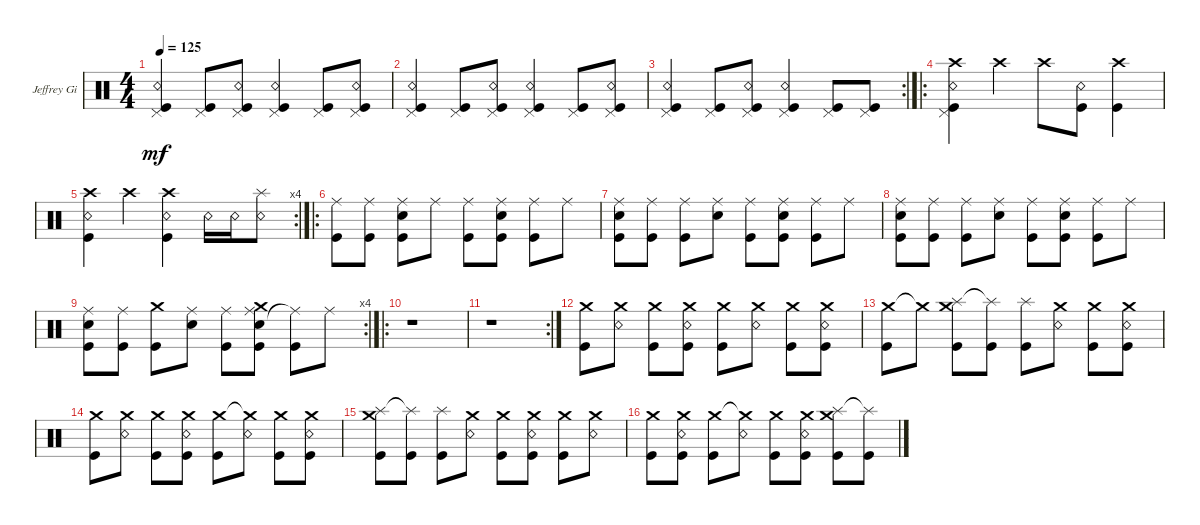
\defaultSystemsLayout 4
\bracketExtendMode groupsimilarinstruments
\firstSystemTrackNameOrientation horizontal
\otherSystemsTrackNameOrientation horizontal
\track ("Jeffrey Gilbert" "Jeffrey Gi") {instrument percussion}
\staff {score}
\articulation defaults
\ts (4 4)
\tempo 125
\clef neutral
\ks c
("Kick (hit)" "Pedal Hi-Hat (hit)" "Snare (rim shot)").4{dy mf} ("Kick (hit)" "Pedal Hi-Hat (hit)").8 ("Kick (hit)" "Pedal Hi-Hat (hit)" "Snare (rim shot)").8 ("Kick (hit)" "Pedal Hi-Hat (hit)" "Snare (rim shot)").4 ("Kick (hit)" "Pedal Hi-Hat (hit)").8 ("Kick (hit)" "Pedal Hi-Hat (hit)" "Snare (rim shot)").8 |
("Kick (hit)" "Pedal Hi-Hat (hit)" "Snare (rim shot)").4 ("Kick (hit)" "Pedal Hi-Hat (hit)").8 ("Kick (hit)" "Pedal Hi-Hat (hit)" "Snare (rim shot)").8 ("Kick (hit)" "Pedal Hi-Hat (hit)" "Snare (rim shot)").4 ("Kick (hit)" "Pedal Hi-Hat (hit)").8 ("Kick (hit)" "Pedal Hi-Hat (hit)" "Snare (rim shot)").8 |
\rc 2
("Kick (hit)" "Snare (rim shot)" "Pedal Hi-Hat (hit)").4 ("Kick (hit)" "Pedal Hi-Hat (hit)").8 ("Kick (hit)" "Snare (rim shot)" "Pedal Hi-Hat (hit)").8 ("Kick (hit)" "Snare (rim shot)" "Pedal Hi-Hat (hit)").4 ("Kick (hit)" "Pedal Hi-Hat (hit)").8 ("Kick (hit)" "Pedal Hi-Hat (hit)").8 |
\ro
("Kick (hit)" "Snare (rim shot)" "Pedal Hi-Hat (hit)" "Crash high (hit)").4 "Crash high (hit)".4 "Crash high (hit)".8 ("Kick (hit)" "Snare (rim shot)").8 ("Crash high (hit)" "Kick (hit)").4 |
\rc 4
("Crash high (hit)" "Snare (rim shot)" "Kick (hit)").4 "Crash high (hit)".4 ("Crash high (hit)" "Kick (hit)" "Snare (rim shot)").4 "Snare (rim shot)".16 "Snare (rim shot)".16 ("Snare (rim shot)" "Splash (hit)").8 |
\ro
("Ride (middle)" "Kick (hit)").8 ("Ride (middle)" "Kick (hit)").8 ("Ride (middle)" "Snare (hit) 2" "Kick (hit)").8 "Ride (middle)".8 ("Ride (middle)" "Kick (hit)").8 ("Ride (middle)" "Snare (hit) 2" "Kick (hit)").8 ("Ride (middle)" "Kick (hit)").8 "Ride (middle)".8 |
("Ride (middle)" "Snare (hit) 2" "Kick (hit)").8 ("Ride (middle)" "Kick (hit)").8 ("Ride (middle)" "Kick (hit)").8 ("Ride (middle)" "Snare (hit) 2").8 ("Ride (middle)" "Kick (hit)").8 ("Ride (middle)" "Snare (hit) 2" "Kick (hit)").8 ("Ride (middle)" "Kick (hit)").8 "Ride (middle)".8 |
("Ride (middle)" "Snare (hit) 2" "Kick (hit)").8 ("Ride (middle)" "Kick (hit)").8 ("Ride (middle)" "Kick (hit)").8 ("Ride (middle)" "Snare (hit) 2").8 ("Ride (middle)" "Kick (hit)").8 ("Ride (middle)" "Snare (hit) 2" "Kick (hit)").8 ("Ride (middle)" "Kick (hit)").8 "Ride (middle)".8 |
\rc 4
("Ride (middle)" "Snare (hit) 2" "Kick (hit)").8 ("Ride (middle)" "Kick (hit)").8 ("Kick (hit)" "Crash medium (hit)").8 ("Ride (middle)" "Snare (hit) 2").8 ("Ride (middle)" "Kick (hit)").8 ("Snare (hit) 2" "Kick (hit)" "Crash medium (hit)" "Ride (middle)").8 ("Ride (middle)"{t} "Kick (hit)").8 "Ride (middle)".8 |
\ro
r.1 |
\rc 2
r.1 |
("Crash medium (hit)" "Kick (hit)").8 ("Crash medium (hit)" "Snare (rim shot)").8 ("Crash medium (hit)" "Kick (hit)").8 ("Crash medium (hit)" "Kick (hit)" "Snare (rim shot)").8 ("Crash medium (hit)" "Kick (hit)").8 ("Crash medium (hit)" "Snare (rim shot)").8 ("Crash medium (hit)" "Kick (hit)").8 ("Crash medium (hit)" "Snare (rim shot)" "Kick (hit)").8 |
("Crash medium (hit)" "Kick (hit)").8 "Crash medium (hit)"{t}.8 ("Kick (hit)" "Splash (hit)" "Crash medium (hit)").8 ("Kick (hit)" "Splash (hit)"{t}).8 ("Kick (hit)" "Splash (hit)").8 ("Crash medium (hit)" "Snare (rim shot)").8 ("Crash medium (hit)" "Kick (hit)").8 ("Crash medium (hit)" "Snare (rim shot)" "Kick (hit)").8 |
("Crash medium (hit)" "Kick (hit)").8 ("Crash medium (hit)" "Snare (rim shot)").8 ("Crash medium (hit)" "Kick (hit)").8 ("Crash medium (hit)" "Kick (hit)" "Snare (rim shot)").8 ("Crash medium (hit)" "Kick (hit)").8 ("Crash medium (hit)"{t} "Snare (rim shot)").8 ("Kick (hit)" "Crash medium (hit)").8 ("Crash medium (hit)" "Kick (hit)" "Snare (rim shot)").8 |
("Kick (hit)" "Splash (hit)" "Crash medium (hit)").8 ("Kick (hit)" "Splash (hit)"{t}).8 ("Kick (hit)" "Splash (hit)").8 ("Crash medium (hit)" "Snare (rim shot)").8 ("Crash medium (hit)" "Kick (hit)").8 ("Crash medium (hit)" "Snare (rim shot)" "Kick (hit)").8 ("Crash medium (hit)" "Kick (hit)").8 ("Crash medium (hit)" "Snare (rim shot)").8 |
("Crash medium (hit)" "Kick (hit)").8 ("Crash medium (hit)" "Kick (hit)" "Snare (rim shot)").8 ("Crash medium (hit)" "Kick (hit)").8 ("Crash medium (hit)"{t} "Snare (rim shot)").8 ("Kick (hit)" "Crash medium (hit)").8 ("Crash medium (hit)" "Kick (hit)" "Snare (rim shot)").8 ("Kick (hit)" "Splash (hit)" "Crash medium (hit)").8 ("Kick (hit)" "Splash (hit)"{t}).8
